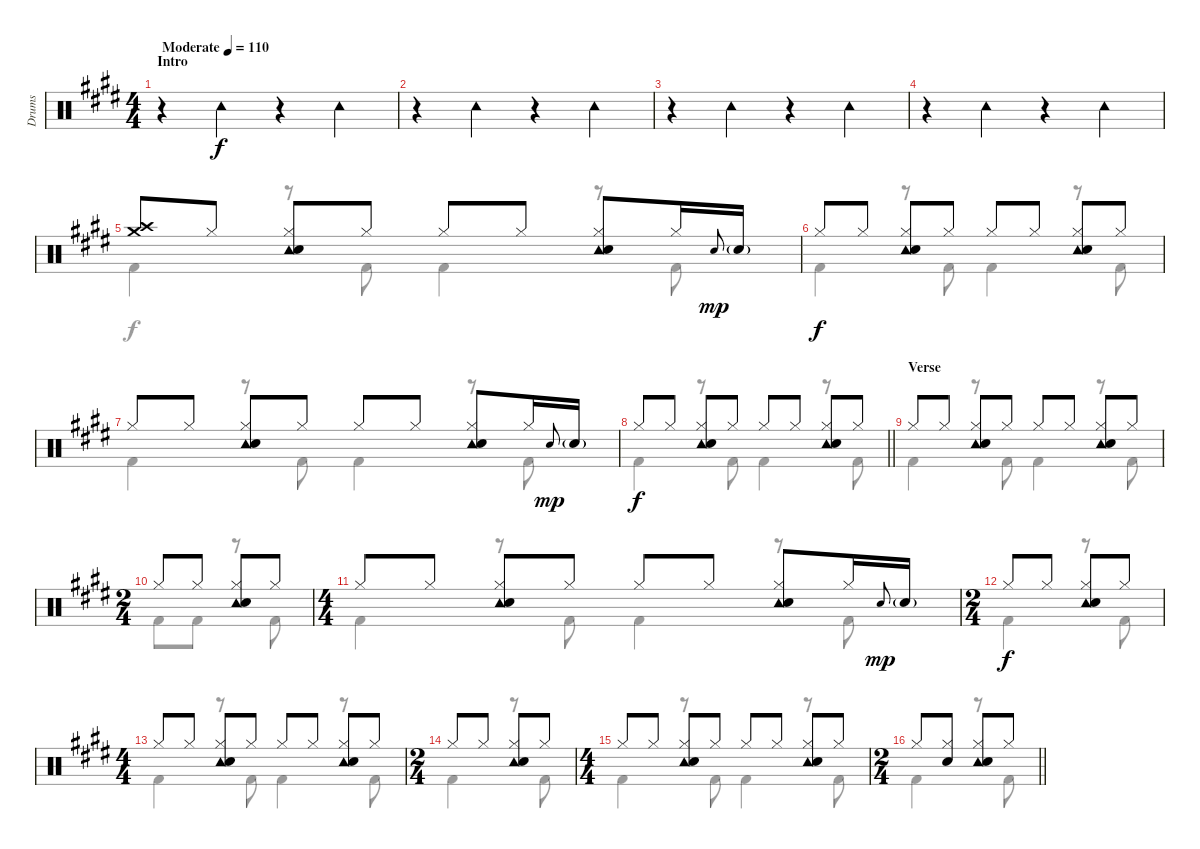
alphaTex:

\track ("Drums" "Drums") {instrument percussion}
\staff {score}
\articulation defaults
\voice
\ts (4 4)
\section ("" "Intro")
\tempo (110 "Moderate")
\clef neutral
\ks e
r.4{dy f} "Tambourine (hit)".4 r.4 "Tambourine (hit)".4 |
r.4 "Tambourine (hit)".4 r.4 "Tambourine (hit)".4 |
r.4 "Tambourine (hit)".4 r.4 "Tambourine (hit)".4 |
r.4 "Tambourine (hit)".4 r.4 "Tambourine (hit)".4 |
("Crash medium (hit)" "Crash high (hit)").8 "Hi-Hat (closed)".8 ("Tambourine (hit)" "Hi-Hat (closed)" "Snare (hit) 2").8 "Hi-Hat (closed)".8 "Hi-Hat (closed)".8 "Hi-Hat (closed)".8 ("Tambourine (hit)" "Hi-Hat (closed)" "Snare (hit) 2").8 "Hi-Hat (closed)".16 "Snare (hit) 2".8{gr onbeat dy mp} "Snare (hit) 2"{g}.16 |
"Hi-Hat (closed)".8{dy f} "Hi-Hat (closed)".8 ("Tambourine (hit)" "Hi-Hat (closed)" "Snare (hit) 2").8 "Hi-Hat (closed)".8 "Hi-Hat (closed)".8 "Hi-Hat (closed)".8 ("Tambourine (hit)" "Hi-Hat (closed)" "Snare (hit) 2").8 "Hi-Hat (closed)".8 |
"Hi-Hat (closed)".8 "Hi-Hat (closed)".8 ("Tambourine (hit)" "Hi-Hat (closed)" "Snare (hit) 2").8 "Hi-Hat (closed)".8 "Hi-Hat (closed)".8 "Hi-Hat (closed)".8 ("Tambourine (hit)" "Hi-Hat (closed)" "Snare (hit) 2").8 "Hi-Hat (closed)".16 "Snare (hit) 2".8{gr onbeat dy mp} "Snare (hit) 2"{g}.16 |
\barLineRight lightlight "Hi-Hat (closed)".8{dy f} "Hi-Hat (closed)".8
("Tambourine (hit)" "Hi-Hat (closed)" "Snare (hit) 2").8 "Hi-Hat (closed)".8 "Hi-Hat (closed)".8 "Hi-Hat (closed)".8 ("Tambourine (hit)" "Hi-Hat (closed)" "Snare (hit) 2").8 "Hi-Hat (closed)".8 |
\section ("" "Verse")
"Hi-Hat (closed)".8 "Hi-Hat (closed)".8 ("Tambourine (hit)" "Hi-Hat (closed)" "Snare (hit) 2").8 "Hi-Hat (closed)".8 "Hi-Hat (closed)".8 "Hi-Hat (closed)".8 ("Tambourine (hit)" "Hi-Hat (closed)" "Snare (hit) 2").8 "Hi-Hat (closed)".8 |
\ts (2 4)
"Hi-Hat (closed)".8 "Hi-Hat (closed)".8 ("Tambourine (hit)" "Hi-Hat (closed)" "Snare (hit) 2").8 "Hi-Hat (closed)".8 |
\ts (4 4)
"Hi-Hat (closed)".8 "Hi-Hat (closed)".8 ("Tambourine (hit)" "Hi-Hat (closed)" "Snare (hit) 2").8 "Hi-Hat (closed)".8 "Hi-Hat (closed)".8 "Hi-Hat (closed)".8 ("Tambourine (hit)" "Hi-Hat (closed)" "Snare (hit) 2").8 "Hi-Hat (closed)".16 "Snare (hit) 2".8{gr onbeat dy mp} "Snare (hit) 2"{g}.16 |
\ts (2 4)
"Hi-Hat (closed)".8{dy f} "Hi-Hat (closed)".8 ("Tambourine (hit)" "Hi-Hat (closed)" "Snare (hit) 2").8 "Hi-Hat (closed)".8 |
\ts (4 4)
"Hi-Hat (closed)".8 "Hi-Hat (closed)".8 ("Tambourine (hit)" "Hi-Hat (closed)" "Snare (hit) 2").8 "Hi-Hat (closed)".8 "Hi-Hat (closed)".8 "Hi-Hat (closed)".8 ("Tambourine (hit)" "Hi-Hat (closed)" "Snare (hit) 2").8 "Hi-Hat (closed)".8 |
\ts (2 4)
"Hi-Hat (closed)".8 "Hi-Hat (closed)".8 ("Tambourine (hit)" "Hi-Hat (closed)" "Snare (hit) 2").8 "Hi-Hat (closed)".8 |
\ts (4 4)
"Hi-Hat (closed)".8 "Hi-Hat (closed)".8 ("Tambourine (hit)" "Hi-Hat (closed)" "Snare (hit) 2").8 "Hi-Hat (closed)".8 "Hi-Hat (closed)".8 "Hi-Hat (closed)".8 ("Tambourine (hit)" "Hi-Hat (closed)" "Snare (hit) 2").8 "Hi-Hat (closed)".8 |
\ts (2 4)
\barLineRight lightlight "Hi-Hat (closed)".8
("Hi-Hat (closed)" "Snare (hit) 2").8 ("Tambourine (hit)" "Hi-Hat (closed)" "Snare (hit) 2").8 "Hi-Hat (closed)".8
\voice
\clef neutral
\ottava regular
\simile none
\ks e
|
|
|
|
"Kick (hit) 2".4 r.8 "Kick (hit) 2".8 "Kick (hit) 2".4 r.8 "Kick (hit) 2".8 |
"Kick (hit) 2".4 r.8 "Kick (hit) 2".8 "Kick (hit) 2".4 r.8 "Kick (hit) 2".8 |
"Kick (hit) 2".4 r.8 "Kick (hit) 2".8 "Kick (hit) 2".4 r.8 "Kick (hit) 2".8 |
\barLineRight lightlight "Kick (hit) 2".4
r.8 "Kick (hit) 2".8 "Kick (hit) 2".4 r.8 "Kick (hit) 2".8 |
"Kick (hit) 2".4 r.8 "Kick (hit) 2".8 "Kick (hit) 2".4 r.8 "Kick (hit) 2".8 |
"Kick (hit) 2".8 "Kick (hit) 2".8 r.8 "Kick (hit) 2".8 |
"Kick (hit) 2".4 r.8 "Kick (hit) 2".8 "Kick (hit) 2".4 r.8 "Kick (hit) 2".8 |
"Kick (hit) 2".4 r.8 "Kick (hit) 2".8 |
"Kick (hit) 2".4 r.8 "Kick (hit) 2".8 "Kick (hit) 2".4 r.8 "Kick (hit) 2".8 |
"Kick (hit) 2".4 r.8 "Kick (hit) 2".8 |
"Kick (hit) 2".4 r.8 "Kick (hit) 2".8 "Kick (hit) 2".4 r.8 "Kick (hit) 2".8 |
\barLineRight lightlight "Kick (hit) 2".4
r.8 "Kick (hit) 2".8
